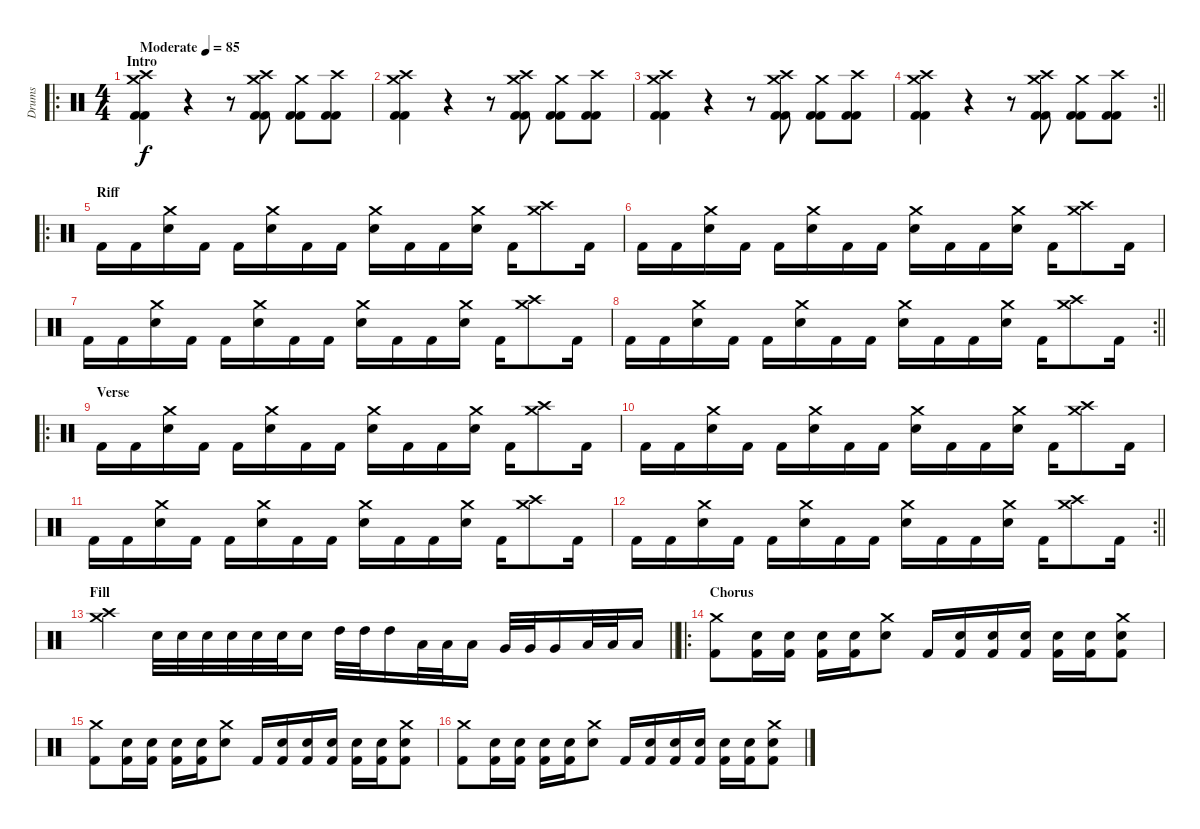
\track ("Drums" "Drums") {instrument percussion}
\staff {score}
\articulation defaults
\ro
\ts (4 4)
\section ("" "Intro")
\tempo (85 "Moderate")
\clef neutral
\ks c
("Crash medium (hit)" "Crash high (hit)" "Kick (hit) 2" "Kick (hit) 2").4{dy f} r.4 r.8 ("Crash medium (hit)" "Crash high (hit)" "Kick (hit) 2" "Kick (hit) 2").8 ("Crash medium (hit)" "Kick (hit) 2" "Kick (hit) 2").8 ("Crash high (hit)" "Kick (hit) 2" "Kick (hit) 2").8 |
("Crash medium (hit)" "Crash high (hit)" "Kick (hit) 2" "Kick (hit) 2").4 r.4 r.8 ("Crash medium (hit)" "Crash high (hit)" "Kick (hit) 2" "Kick (hit) 2").8 ("Crash medium (hit)" "Kick (hit) 2" "Kick (hit) 2").8 ("Crash high (hit)" "Kick (hit) 2" "Kick (hit) 2").8 |
("Crash medium (hit)" "Crash high (hit)" "Kick (hit) 2" "Kick (hit) 2").4 r.4 r.8 ("Crash medium (hit)" "Crash high (hit)" "Kick (hit) 2" "Kick (hit) 2").8 ("Crash medium (hit)" "Kick (hit) 2" "Kick (hit) 2").8 ("Crash high (hit)" "Kick (hit) 2" "Kick (hit) 2").8 |
\rc 2
\barLineRight lightlight
("Crash medium (hit)" "Crash high (hit)" "Kick (hit) 2" "Kick (hit) 2").4 r.4 r.8 ("Crash medium (hit)" "Crash high (hit)" "Kick (hit) 2" "Kick (hit) 2").8 ("Crash medium (hit)" "Kick (hit) 2" "Kick (hit) 2").8 ("Crash high (hit)" "Kick (hit) 2" "Kick (hit) 2").8 |
\ro
\section ("" "Riff")
"Kick (hit) 2".16 "Kick (hit) 2".16 ("Crash medium (hit)" "Electric Snare (hit)").16 "Kick (hit) 2".16 "Kick (hit) 2".16 ("Crash medium (hit)" "Electric Snare (hit)").16 "Kick (hit) 2".16 "Kick (hit) 2".16 ("Crash medium (hit)" "Electric Snare (hit)").16 "Kick (hit) 2".16 "Kick (hit) 2".16 ("Crash medium (hit)" "Electric Snare (hit)").16 "Kick (hit) 2".16 ("Crash medium (hit)" "Crash high (hit)").8 "Kick (hit) 2".16 |
"Kick (hit) 2".16 "Kick (hit) 2".16 ("Crash medium (hit)" "Electric Snare (hit)").16 "Kick (hit) 2".16 "Kick (hit) 2".16 ("Crash medium (hit)" "Electric Snare (hit)").16 "Kick (hit) 2".16 "Kick (hit) 2".16 ("Crash medium (hit)" "Electric Snare (hit)").16 "Kick (hit) 2".16 "Kick (hit) 2".16 ("Crash medium (hit)" "Electric Snare (hit)").16 "Kick (hit) 2".16 ("Crash medium (hit)" "Crash high (hit)").8 "Kick (hit) 2".16 |
"Kick (hit) 2".16 "Kick (hit) 2".16 ("Crash medium (hit)" "Electric Snare (hit)").16 "Kick (hit) 2".16 "Kick (hit) 2".16 ("Crash medium (hit)" "Electric Snare (hit)").16 "Kick (hit) 2".16 "Kick (hit) 2".16 ("Crash medium (hit)" "Electric Snare (hit)").16 "Kick (hit) 2".16 "Kick (hit) 2".16 ("Crash medium (hit)" "Electric Snare (hit)").16 "Kick (hit) 2".16 ("Crash medium (hit)" "Crash high (hit)").8 "Kick (hit) 2".16 |
\rc 2
\barLineRight lightlight "Kick (hit) 2".16 "Kick (hit) 2".16
("Crash medium (hit)" "Electric Snare (hit)").16 "Kick (hit) 2".16 "Kick (hit) 2".16 ("Crash medium (hit)" "Electric Snare (hit)").16 "Kick (hit) 2".16 "Kick (hit) 2".16 ("Crash medium (hit)" "Electric Snare (hit)").16 "Kick (hit) 2".16 "Kick (hit) 2".16 ("Crash medium (hit)" "Electric Snare (hit)").16 "Kick (hit) 2".16 ("Crash medium (hit)" "Crash high (hit)").8 "Kick (hit) 2".16 |
\ro
\section ("" "Verse")
"Kick (hit) 2".16 "Kick (hit) 2".16 ("Crash medium (hit)" "Electric Snare (hit)").16 "Kick (hit) 2".16 "Kick (hit) 2".16 ("Crash medium (hit)" "Electric Snare (hit)").16 "Kick (hit) 2".16 "Kick (hit) 2".16 ("Crash medium (hit)" "Electric Snare (hit)").16 "Kick (hit) 2".16 "Kick (hit) 2".16 ("Crash medium (hit)" "Electric Snare (hit)").16 "Kick (hit) 2".16 ("Crash medium (hit)" "Crash high (hit)").8 "Kick (hit) 2".16 |
"Kick (hit) 2".16 "Kick (hit) 2".16 ("Crash medium (hit)" "Electric Snare (hit)").16 "Kick (hit) 2".16 "Kick (hit) 2".16 ("Crash medium (hit)" "Electric Snare (hit)").16 "Kick (hit) 2".16 "Kick (hit) 2".16 ("Crash medium (hit)" "Electric Snare (hit)").16 "Kick (hit) 2".16 "Kick (hit) 2".16 ("Crash medium (hit)" "Electric Snare (hit)").16 "Kick (hit) 2".16 ("Crash medium (hit)" "Crash high (hit)").8 "Kick (hit) 2".16 |
"Kick (hit) 2".16 "Kick (hit) 2".16 ("Crash medium (hit)" "Electric Snare (hit)").16 "Kick (hit) 2".16 "Kick (hit) 2".16 ("Crash medium (hit)" "Electric Snare (hit)").16 "Kick (hit) 2".16 "Kick (hit) 2".16 ("Crash medium (hit)" "Electric Snare (hit)").16 "Kick (hit) 2".16 "Kick (hit) 2".16 ("Crash medium (hit)" "Electric Snare (hit)").16 "Kick (hit) 2".16 ("Crash medium (hit)" "Crash high (hit)").8 "Kick (hit) 2".16 |
\rc 2
\barLineRight lightlight "Kick (hit) 2".16 "Kick (hit) 2".16
("Crash medium (hit)" "Electric Snare (hit)").16 "Kick (hit) 2".16 "Kick (hit) 2".16 ("Crash medium (hit)" "Electric Snare (hit)").16 "Kick (hit) 2".16 "Kick (hit) 2".16 ("Crash medium (hit)" "Electric Snare (hit)").16 "Kick (hit) 2".16 "Kick (hit) 2".16 ("Crash medium (hit)" "Electric Snare (hit)").16 "Kick (hit) 2".16 ("Crash medium (hit)" "Crash high (hit)").8 "Kick (hit) 2".16 |
\section ("" "Fill")
\barLineRight lightlight
("Crash medium (hit)" "Crash high (hit)").4 "Electric Snare (hit)".32 "Electric Snare (hit)".32 "Electric Snare (hit)".32 "Electric Snare (hit)".32 "Electric Snare (hit)".32 "Electric Snare (hit)".32 "Electric Snare (hit)".16 "High Tom (hit)".32 "High Tom (hit)".32 "High Tom (hit)".16 "Low Tom (hit)".32 "Low Tom (hit)".32 "Low Tom (hit)".16 "Very Low Tom (hit)".32 "Very Low Tom (hit)".32 "Very Low Tom (hit)".16 "Low Floor Tom (hit)".32 "Low Floor Tom (hit)".32 "Low Floor Tom (hit)".16 |
\ro
\section ("" "Chorus")
("Crash medium (hit)" "Kick (hit) 2").8 ("Electric Snare (hit)" "Kick (hit) 2").16 ("Electric Snare (hit)" "Kick (hit) 2").16 ("Electric Snare (hit)" "Kick (hit) 2").16 ("Electric Snare (hit)" "Kick (hit) 2").16 ("Crash medium (hit)" "Electric Snare (hit)").8 "Kick (hit) 2".16 ("Electric Snare (hit)" "Kick (hit) 2").16 ("Electric Snare (hit)" "Kick (hit) 2").16 ("Electric Snare (hit)" "Kick (hit) 2").16 ("Electric Snare (hit)" "Kick (hit) 2").16 ("Electric Snare (hit)" "Kick (hit) 2").16 ("Crash medium (hit)" "Electric Snare (hit)" "Kick (hit) 2").8 |
("Crash medium (hit)" "Kick (hit) 2").8 ("Electric Snare (hit)" "Kick (hit) 2").16 ("Electric Snare (hit)" "Kick (hit) 2").16 ("Electric Snare (hit)" "Kick (hit) 2").16 ("Electric Snare (hit)" "Kick (hit) 2").16 ("Crash medium (hit)" "Electric Snare (hit)").8 "Kick (hit) 2".16 ("Electric Snare (hit)" "Kick (hit) 2").16 ("Electric Snare (hit)" "Kick (hit) 2").16 ("Electric Snare (hit)" "Kick (hit) 2").16 ("Electric Snare (hit)" "Kick (hit) 2").16 ("Electric Snare (hit)" "Kick (hit) 2").16 ("Crash medium (hit)" "Electric Snare (hit)" "Kick (hit) 2").8 |
("Crash medium (hit)" "Kick (hit) 2").8 ("Electric Snare (hit)" "Kick (hit) 2").16 ("Electric Snare (hit)" "Kick (hit) 2").16 ("Electric Snare (hit)" "Kick (hit) 2").16 ("Electric Snare (hit)" "Kick (hit) 2").16 ("Crash medium (hit)" "Electric Snare (hit)").8 "Kick (hit) 2".16 ("Electric Snare (hit)" "Kick (hit) 2").16 ("Electric Snare (hit)" "Kick (hit) 2").16 ("Electric Snare (hit)" "Kick (hit) 2").16 ("Electric Snare (hit)" "Kick (hit) 2").16 ("Electric Snare (hit)" "Kick (hit) 2").16 ("Crash medium (hit)" "Electric Snare (hit)" "Kick (hit) 2").8
